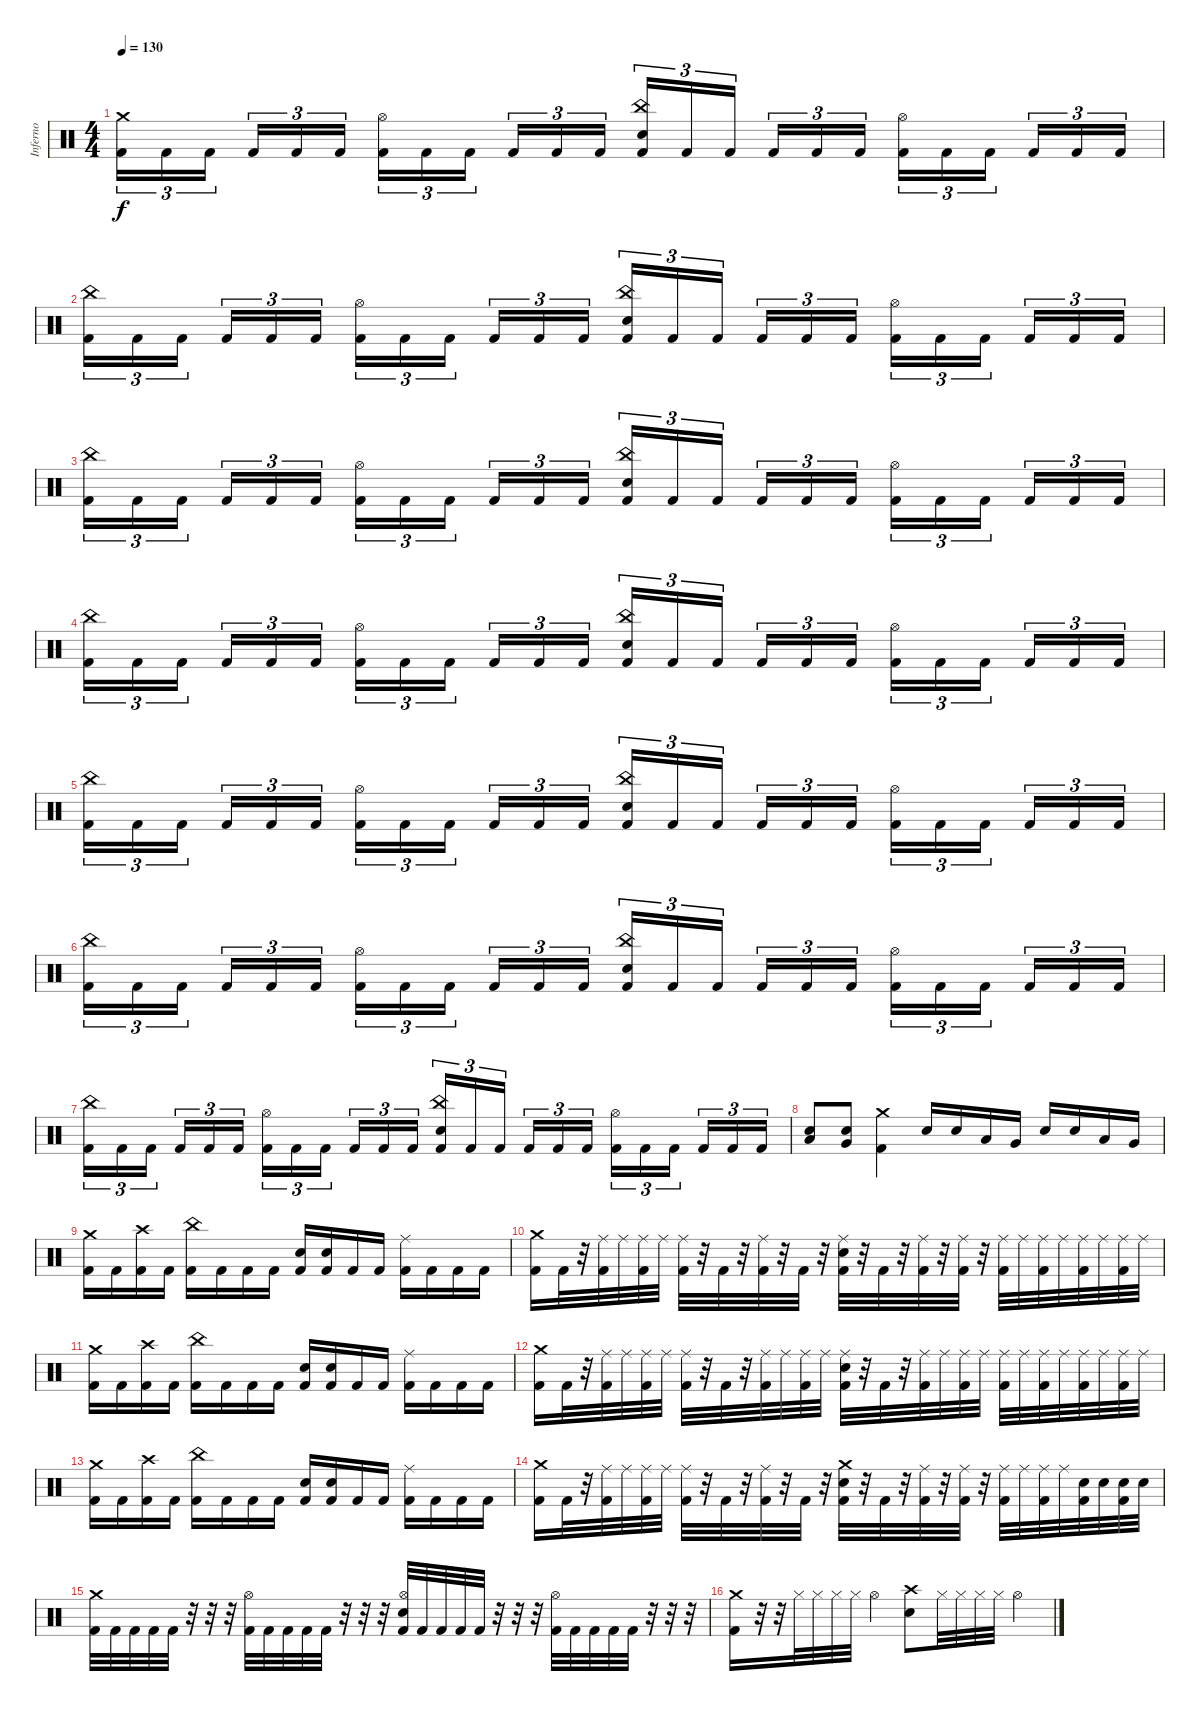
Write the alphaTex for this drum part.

\track ("Inferno" "Inferno") {instrument percussion}
\staff {score}
\articulation defaults
\ts (4 4)
\tempo 130
\clef neutral
\ks c
("Crash medium (hit)" "Kick (hit) 2").16{tu (3 2) dy f} "Kick (hit) 2".16{tu (3 2)} "Kick (hit) 2".16{tu (3 2) beam splitsecondary} "Kick (hit) 2".16{tu (3 2)} "Kick (hit) 2".16{tu (3 2)} "Kick (hit) 2".16{tu (3 2)} ("Hi-Hat (open)" "Kick (hit) 2").16{tu (3 2)} "Kick (hit) 2".16{tu (3 2)} "Kick (hit) 2".16{tu (3 2) beam splitsecondary} "Kick (hit) 2".16{tu (3 2)} "Kick (hit) 2".16{tu (3 2)} "Kick (hit) 2".16{tu (3 2)} ("China (hit)" "Snare (hit) 2" "Kick (hit) 2").16{tu (3 2)} "Kick (hit) 2".16{tu (3 2)} "Kick (hit) 2".16{tu (3 2) beam splitsecondary} "Kick (hit) 2".16{tu (3 2)} "Kick (hit) 2".16{tu (3 2)} "Kick (hit) 2".16{tu (3 2)} ("Hi-Hat (open)" "Kick (hit) 2").16{tu (3 2)} "Kick (hit) 2".16{tu (3 2)} "Kick (hit) 2".16{tu (3 2) beam splitsecondary} "Kick (hit) 2".16{tu (3 2)} "Kick (hit) 2".16{tu (3 2)} "Kick (hit) 2".16{tu (3 2)} |
("China (hit)" "Kick (hit) 2").16{tu (3 2)} "Kick (hit) 2".16{tu (3 2)} "Kick (hit) 2".16{tu (3 2) beam splitsecondary} "Kick (hit) 2".16{tu (3 2)} "Kick (hit) 2".16{tu (3 2)} "Kick (hit) 2".16{tu (3 2)} ("Hi-Hat (open)" "Kick (hit) 2").16{tu (3 2)} "Kick (hit) 2".16{tu (3 2)} "Kick (hit) 2".16{tu (3 2) beam splitsecondary} "Kick (hit) 2".16{tu (3 2)} "Kick (hit) 2".16{tu (3 2)} "Kick (hit) 2".16{tu (3 2)} ("China (hit)" "Snare (hit) 2" "Kick (hit) 2").16{tu (3 2)} "Kick (hit) 2".16{tu (3 2)} "Kick (hit) 2".16{tu (3 2) beam splitsecondary} "Kick (hit) 2".16{tu (3 2)} "Kick (hit) 2".16{tu (3 2)} "Kick (hit) 2".16{tu (3 2)} ("Hi-Hat (open)" "Kick (hit) 2").16{tu (3 2)} "Kick (hit) 2".16{tu (3 2)} "Kick (hit) 2".16{tu (3 2) beam splitsecondary} "Kick (hit) 2".16{tu (3 2)} "Kick (hit) 2".16{tu (3 2)} "Kick (hit) 2".16{tu (3 2)} |
("China (hit)" "Kick (hit) 2").16{tu (3 2)} "Kick (hit) 2".16{tu (3 2)} "Kick (hit) 2".16{tu (3 2) beam splitsecondary} "Kick (hit) 2".16{tu (3 2)} "Kick (hit) 2".16{tu (3 2)} "Kick (hit) 2".16{tu (3 2)} ("Hi-Hat (open)" "Kick (hit) 2").16{tu (3 2)} "Kick (hit) 2".16{tu (3 2)} "Kick (hit) 2".16{tu (3 2) beam splitsecondary} "Kick (hit) 2".16{tu (3 2)} "Kick (hit) 2".16{tu (3 2)} "Kick (hit) 2".16{tu (3 2)} ("China (hit)" "Snare (hit) 2" "Kick (hit) 2").16{tu (3 2)} "Kick (hit) 2".16{tu (3 2)} "Kick (hit) 2".16{tu (3 2) beam splitsecondary} "Kick (hit) 2".16{tu (3 2)} "Kick (hit) 2".16{tu (3 2)} "Kick (hit) 2".16{tu (3 2)} ("Hi-Hat (open)" "Kick (hit) 2").16{tu (3 2)} "Kick (hit) 2".16{tu (3 2)} "Kick (hit) 2".16{tu (3 2) beam splitsecondary} "Kick (hit) 2".16{tu (3 2)} "Kick (hit) 2".16{tu (3 2)} "Kick (hit) 2".16{tu (3 2)} |
("China (hit)" "Kick (hit) 2").16{tu (3 2)} "Kick (hit) 2".16{tu (3 2)} "Kick (hit) 2".16{tu (3 2) beam splitsecondary} "Kick (hit) 2".16{tu (3 2)} "Kick (hit) 2".16{tu (3 2)} "Kick (hit) 2".16{tu (3 2)} ("Hi-Hat (open)" "Kick (hit) 2").16{tu (3 2)} "Kick (hit) 2".16{tu (3 2)} "Kick (hit) 2".16{tu (3 2) beam splitsecondary} "Kick (hit) 2".16{tu (3 2)} "Kick (hit) 2".16{tu (3 2)} "Kick (hit) 2".16{tu (3 2)} ("China (hit)" "Snare (hit) 2" "Kick (hit) 2").16{tu (3 2)} "Kick (hit) 2".16{tu (3 2)} "Kick (hit) 2".16{tu (3 2) beam splitsecondary} "Kick (hit) 2".16{tu (3 2)} "Kick (hit) 2".16{tu (3 2)} "Kick (hit) 2".16{tu (3 2)} ("Hi-Hat (open)" "Kick (hit) 2").16{tu (3 2)} "Kick (hit) 2".16{tu (3 2)} "Kick (hit) 2".16{tu (3 2) beam splitsecondary} "Kick (hit) 2".16{tu (3 2)} "Kick (hit) 2".16{tu (3 2)} "Kick (hit) 2".16{tu (3 2)} |
("China (hit)" "Kick (hit) 2").16{tu (3 2)} "Kick (hit) 2".16{tu (3 2)} "Kick (hit) 2".16{tu (3 2) beam splitsecondary} "Kick (hit) 2".16{tu (3 2)} "Kick (hit) 2".16{tu (3 2)} "Kick (hit) 2".16{tu (3 2)} ("Hi-Hat (open)" "Kick (hit) 2").16{tu (3 2)} "Kick (hit) 2".16{tu (3 2)} "Kick (hit) 2".16{tu (3 2) beam splitsecondary} "Kick (hit) 2".16{tu (3 2)} "Kick (hit) 2".16{tu (3 2)} "Kick (hit) 2".16{tu (3 2)} ("China (hit)" "Snare (hit) 2" "Kick (hit) 2").16{tu (3 2)} "Kick (hit) 2".16{tu (3 2)} "Kick (hit) 2".16{tu (3 2) beam splitsecondary} "Kick (hit) 2".16{tu (3 2)} "Kick (hit) 2".16{tu (3 2)} "Kick (hit) 2".16{tu (3 2)} ("Hi-Hat (open)" "Kick (hit) 2").16{tu (3 2)} "Kick (hit) 2".16{tu (3 2)} "Kick (hit) 2".16{tu (3 2) beam splitsecondary} "Kick (hit) 2".16{tu (3 2)} "Kick (hit) 2".16{tu (3 2)} "Kick (hit) 2".16{tu (3 2)} |
("China (hit)" "Kick (hit) 2").16{tu (3 2)} "Kick (hit) 2".16{tu (3 2)} "Kick (hit) 2".16{tu (3 2) beam splitsecondary} "Kick (hit) 2".16{tu (3 2)} "Kick (hit) 2".16{tu (3 2)} "Kick (hit) 2".16{tu (3 2)} ("Hi-Hat (open)" "Kick (hit) 2").16{tu (3 2)} "Kick (hit) 2".16{tu (3 2)} "Kick (hit) 2".16{tu (3 2) beam splitsecondary} "Kick (hit) 2".16{tu (3 2)} "Kick (hit) 2".16{tu (3 2)} "Kick (hit) 2".16{tu (3 2)} ("China (hit)" "Snare (hit) 2" "Kick (hit) 2").16{tu (3 2)} "Kick (hit) 2".16{tu (3 2)} "Kick (hit) 2".16{tu (3 2) beam splitsecondary} "Kick (hit) 2".16{tu (3 2)} "Kick (hit) 2".16{tu (3 2)} "Kick (hit) 2".16{tu (3 2)} ("Hi-Hat (open)" "Kick (hit) 2").16{tu (3 2)} "Kick (hit) 2".16{tu (3 2)} "Kick (hit) 2".16{tu (3 2) beam splitsecondary} "Kick (hit) 2".16{tu (3 2)} "Kick (hit) 2".16{tu (3 2)} "Kick (hit) 2".16{tu (3 2)} |
("China (hit)" "Kick (hit) 2").16{tu (3 2)} "Kick (hit) 2".16{tu (3 2)} "Kick (hit) 2".16{tu (3 2) beam splitsecondary} "Kick (hit) 2".16{tu (3 2)} "Kick (hit) 2".16{tu (3 2)} "Kick (hit) 2".16{tu (3 2)} ("Hi-Hat (open)" "Kick (hit) 2").16{tu (3 2)} "Kick (hit) 2".16{tu (3 2)} "Kick (hit) 2".16{tu (3 2) beam splitsecondary} "Kick (hit) 2".16{tu (3 2)} "Kick (hit) 2".16{tu (3 2)} "Kick (hit) 2".16{tu (3 2)} ("China (hit)" "Snare (hit) 2" "Kick (hit) 2").16{tu (3 2)} "Kick (hit) 2".16{tu (3 2)} "Kick (hit) 2".16{tu (3 2) beam splitsecondary} "Kick (hit) 2".16{tu (3 2)} "Kick (hit) 2".16{tu (3 2)} "Kick (hit) 2".16{tu (3 2)} ("Hi-Hat (open)" "Kick (hit) 2").16{tu (3 2)} "Kick (hit) 2".16{tu (3 2)} "Kick (hit) 2".16{tu (3 2) beam splitsecondary} "Kick (hit) 2".16{tu (3 2)} "Kick (hit) 2".16{tu (3 2)} "Kick (hit) 2".16{tu (3 2)} |
("Low Tom (hit)" "Snare (hit) 2").8 ("Very Low Tom (hit)" "Snare (hit) 2").8 ("Crash medium (hit)" "Kick (hit) 2").4 "Snare (hit) 2".16 "Snare (hit) 2".16 "Low Tom (hit)".16 "Very Low Tom (hit)".16 "Snare (hit) 2".16 "Snare (hit) 2".16 "Low Tom (hit)".16 "Very Low Tom (hit)".16 |
("Crash medium (hit)" "Kick (hit) 2").16 "Kick (hit) 2".16 ("Crash high (hit)" "Kick (hit) 2").16 "Kick (hit) 2".16 ("China (hit)" "Kick (hit) 2").16 "Kick (hit) 2".16 "Kick (hit) 2".16 "Kick (hit) 2".16 ("Snare (hit) 2" "Kick (hit) 2").16 ("Snare (hit) 2" "Kick (hit) 2").16 "Kick (hit) 2".16 "Kick (hit) 2".16 ("Ride (middle)" "Kick (hit) 2").16 "Kick (hit) 2".16 "Kick (hit) 2".16 "Kick (hit) 2".16 |
("Crash medium (hit)" "Kick (hit) 2").16 "Kick (hit) 2".32 r.32 ("Ride (middle)" "Kick (hit) 2").32 "Ride (middle)".32 ("Ride (middle)" "Kick (hit) 2").32 "Ride (middle)".32 ("Ride (middle)" "Kick (hit) 2").32 r.32 "Kick (hit) 2".32 r.32 ("Ride (middle)" "Kick (hit) 2").32 r.32 "Kick (hit) 2".32 r.32 ("Ride (middle)" "Snare (hit) 2" "Kick (hit) 2").32 r.32 "Kick (hit) 2".32 r.32 ("Ride (middle)" "Kick (hit) 2").32 r.32 ("Ride (middle)" "Kick (hit) 2").32 r.32 ("Ride (middle)" "Kick (hit) 2").32 "Ride (middle)".32 ("Ride (middle)" "Kick (hit) 2").32 "Ride (middle)".32 ("Ride (middle)" "Kick (hit) 2").32 "Ride (middle)".32 ("Ride (middle)" "Kick (hit) 2").32 "Ride (middle)".32 |
("Crash medium (hit)" "Kick (hit) 2").16 "Kick (hit) 2".16 ("Crash high (hit)" "Kick (hit) 2").16 "Kick (hit) 2".16 ("China (hit)" "Kick (hit) 2").16 "Kick (hit) 2".16 "Kick (hit) 2".16 "Kick (hit) 2".16 ("Snare (hit) 2" "Kick (hit) 2").16 ("Snare (hit) 2" "Kick (hit) 2").16 "Kick (hit) 2".16 "Kick (hit) 2".16 ("Ride (middle)" "Kick (hit) 2").16 "Kick (hit) 2".16 "Kick (hit) 2".16 "Kick (hit) 2".16 |
("Crash medium (hit)" "Kick (hit) 2").16 "Kick (hit) 2".32 r.32 ("Ride (middle)" "Kick (hit) 2").32 "Ride (middle)".32 ("Ride (middle)" "Kick (hit) 2").32 "Ride (middle)".32 ("Ride (middle)" "Kick (hit) 2").32 r.32 "Kick (hit) 2".32 r.32 ("Ride (middle)" "Kick (hit) 2").32 "Ride (middle)".32 ("Ride (middle)" "Kick (hit) 2").32 "Ride (middle)".32 ("Ride (middle)" "Snare (hit) 2" "Kick (hit) 2").32 r.32 "Kick (hit) 2".32 r.32 ("Ride (middle)" "Kick (hit) 2").32 "Ride (middle)".32 ("Ride (middle)" "Kick (hit) 2").32 "Ride (middle)".32 ("Ride (middle)" "Kick (hit) 2").32 "Ride (middle)".32 ("Ride (middle)" "Kick (hit) 2").32 "Ride (middle)".32 ("Ride (middle)" "Kick (hit) 2").32 "Ride (middle)".32 ("Ride (middle)" "Kick (hit) 2").32 "Ride (middle)".32 |
("Crash medium (hit)" "Kick (hit) 2").16 "Kick (hit) 2".16 ("Crash high (hit)" "Kick (hit) 2").16 "Kick (hit) 2".16 ("China (hit)" "Kick (hit) 2").16 "Kick (hit) 2".16 "Kick (hit) 2".16 "Kick (hit) 2".16 ("Snare (hit) 2" "Kick (hit) 2").16 ("Snare (hit) 2" "Kick (hit) 2").16 "Kick (hit) 2".16 "Kick (hit) 2".16 ("Ride (middle)" "Kick (hit) 2").16 "Kick (hit) 2".16 "Kick (hit) 2".16 "Kick (hit) 2".16 |
("Crash medium (hit)" "Kick (hit) 2").16 "Kick (hit) 2".32 r.32 ("Ride (middle)" "Kick (hit) 2").32 "Ride (middle)".32 ("Ride (middle)" "Kick (hit) 2").32 "Ride (middle)".32 ("Ride (middle)" "Kick (hit) 2").32 r.32 "Kick (hit) 2".32 r.32 ("Ride (middle)" "Kick (hit) 2").32 r.32 "Kick (hit) 2".32 r.32 ("Crash medium (hit)" "Snare (hit) 2" "Kick (hit) 2").32 r.32 "Kick (hit) 2".32 r.32 ("Ride (middle)" "Kick (hit) 2").32 r.32 ("Ride (middle)" "Kick (hit) 2").32 r.32 ("Ride (middle)" "Kick (hit) 2").32 "Ride (middle)".32 ("Ride (middle)" "Kick (hit) 2").32 "Ride (middle)".32 ("Snare (hit) 2" "Kick (hit) 2").32 "Snare (hit) 2".32 ("Snare (hit) 2" "Kick (hit) 2").32 "Snare (hit) 2".32 |
("Crash medium (hit)" "Kick (hit) 2").32 "Kick (hit) 2".32 "Kick (hit) 2".32 "Kick (hit) 2".32 "Kick (hit) 2".32 r.32 r.32 r.32 ("Hi-Hat (open)" "Kick (hit) 2").32 "Kick (hit) 2".32 "Kick (hit) 2".32 "Kick (hit) 2".32 "Kick (hit) 2".32 r.32 r.32 r.32 ("Hi-Hat (open)" "Snare (hit) 2" "Kick (hit) 2").32 "Kick (hit) 2".32 "Kick (hit) 2".32 "Kick (hit) 2".32 "Kick (hit) 2".32 r.32 r.32 r.32 ("Hi-Hat (open)" "Kick (hit) 2").32 "Kick (hit) 2".32 "Kick (hit) 2".32 "Kick (hit) 2".32 "Kick (hit) 2".32 r.32 r.32 r.32 |
("Crash medium (hit)" "Kick (hit) 2").16 r.32 r.32 "Hi-Hat (closed)".32 "Hi-Hat (closed)".32 "Hi-Hat (closed)".32 "Hi-Hat (closed)".32 "Hi-Hat (open)".4 ("Crash high (hit)" "Snare (hit) 2").8 "Hi-Hat (closed)".32 "Hi-Hat (closed)".32 "Hi-Hat (closed)".32 "Hi-Hat (closed)".32 "Hi-Hat (open)".4
